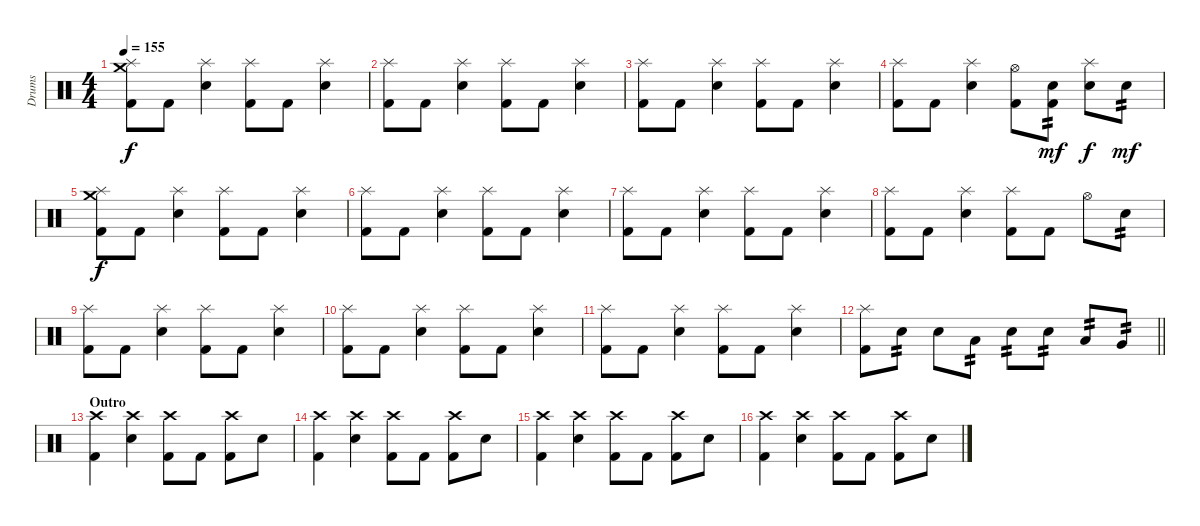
\track ("Drums" "Drums") {instrument percussion}
\staff {score}
\articulation defaults
\ts (4 4)
\tempo 155
\clef neutral
\ks c
("Crash medium (hit)" "Splash (hit)" "Kick (hit) 2").8{dy f} "Kick (hit) 2".8 ("Splash (hit)" "Snare (hit) 2").4 ("Splash (hit)" "Kick (hit) 2").8 "Kick (hit) 2".8 ("Splash (hit)" "Snare (hit) 2").4 |
("Splash (hit)" "Kick (hit) 2").8 "Kick (hit) 2".8 ("Splash (hit)" "Snare (hit) 2").4 ("Splash (hit)" "Kick (hit) 2").8 "Kick (hit) 2".8 ("Splash (hit)" "Snare (hit) 2").4 |
("Splash (hit)" "Kick (hit) 2").8 "Kick (hit) 2".8 ("Splash (hit)" "Snare (hit) 2").4 ("Splash (hit)" "Kick (hit) 2").8 "Kick (hit) 2".8 ("Splash (hit)" "Snare (hit) 2").4 |
("Splash (hit)" "Kick (hit) 2").8 "Kick (hit) 2".8 ("Splash (hit)" "Snare (hit) 2").4 ("Hi-Hat (open)" "Kick (hit) 2").8 ("Snare (hit) 2" "Kick (hit) 2").8{tp 2 dy mf} ("Splash (hit)" "Snare (hit) 2").8{dy f} "Snare (hit) 2".8{tp 2 dy mf} |
("Crash medium (hit)" "Splash (hit)" "Kick (hit) 2").8{dy f} "Kick (hit) 2".8 ("Splash (hit)" "Snare (hit) 2").4 ("Splash (hit)" "Kick (hit) 2").8 "Kick (hit) 2".8 ("Splash (hit)" "Snare (hit) 2").4 |
("Splash (hit)" "Kick (hit) 2").8 "Kick (hit) 2".8 ("Splash (hit)" "Snare (hit) 2").4 ("Splash (hit)" "Kick (hit) 2").8 "Kick (hit) 2".8 ("Splash (hit)" "Snare (hit) 2").4 |
("Splash (hit)" "Kick (hit) 2").8 "Kick (hit) 2".8 ("Splash (hit)" "Snare (hit) 2").4 ("Splash (hit)" "Kick (hit) 2").8 "Kick (hit) 2".8 ("Splash (hit)" "Snare (hit) 2").4 |
("Splash (hit)" "Kick (hit) 2").8 "Kick (hit) 2".8 ("Splash (hit)" "Snare (hit) 2").4 ("Splash (hit)" "Kick (hit) 2").8 "Kick (hit) 2".8 "Hi-Hat (open)".8 "Snare (hit) 2".8{tp 2} |
("Splash (hit)" "Kick (hit) 2").8 "Kick (hit) 2".8 ("Splash (hit)" "Snare (hit) 2").4 ("Splash (hit)" "Kick (hit) 2").8 "Kick (hit) 2".8 ("Splash (hit)" "Snare (hit) 2").4 |
("Splash (hit)" "Kick (hit) 2").8 "Kick (hit) 2".8 ("Splash (hit)" "Snare (hit) 2").4 ("Splash (hit)" "Kick (hit) 2").8 "Kick (hit) 2".8 ("Splash (hit)" "Snare (hit) 2").4 |
("Splash (hit)" "Kick (hit) 2").8 "Kick (hit) 2".8 ("Splash (hit)" "Snare (hit) 2").4 ("Splash (hit)" "Kick (hit) 2").8 "Kick (hit) 2".8 ("Splash (hit)" "Snare (hit) 2").4 |
\barLineRight lightlight
("Splash (hit)" "Kick (hit) 2").8 "Snare (hit) 2".8{tp 2} "Snare (hit) 2".8 "Low Tom (hit)".8{tp 2} "Snare (hit) 2".8{tp 2} "Snare (hit) 2".8{tp 2} "Low Tom (hit)".8{tp 2} "Very Low Tom (hit)".8{tp 2} |
\section ("" "Outro")
("Crash high (hit)" "Kick (hit) 2").4 ("Crash high (hit)" "Snare (hit) 2").4 ("Crash high (hit)" "Kick (hit) 2").8 "Kick (hit) 2".8 ("Crash high (hit)" "Kick (hit) 2").8 "Snare (hit) 2".8 |
("Crash high (hit)" "Kick (hit) 2").4 ("Crash high (hit)" "Snare (hit) 2").4 ("Crash high (hit)" "Kick (hit) 2").8 "Kick (hit) 2".8 ("Crash high (hit)" "Kick (hit) 2").8 "Snare (hit) 2".8 |
("Crash high (hit)" "Kick (hit) 2").4 ("Crash high (hit)" "Snare (hit) 2").4 ("Crash high (hit)" "Kick (hit) 2").8 "Kick (hit) 2".8 ("Crash high (hit)" "Kick (hit) 2").8 "Snare (hit) 2".8 |
("Crash high (hit)" "Kick (hit) 2").4 ("Crash high (hit)" "Snare (hit) 2").4 ("Crash high (hit)" "Kick (hit) 2").8 "Kick (hit) 2".8 ("Crash high (hit)" "Kick (hit) 2").8 "Snare (hit) 2".8
